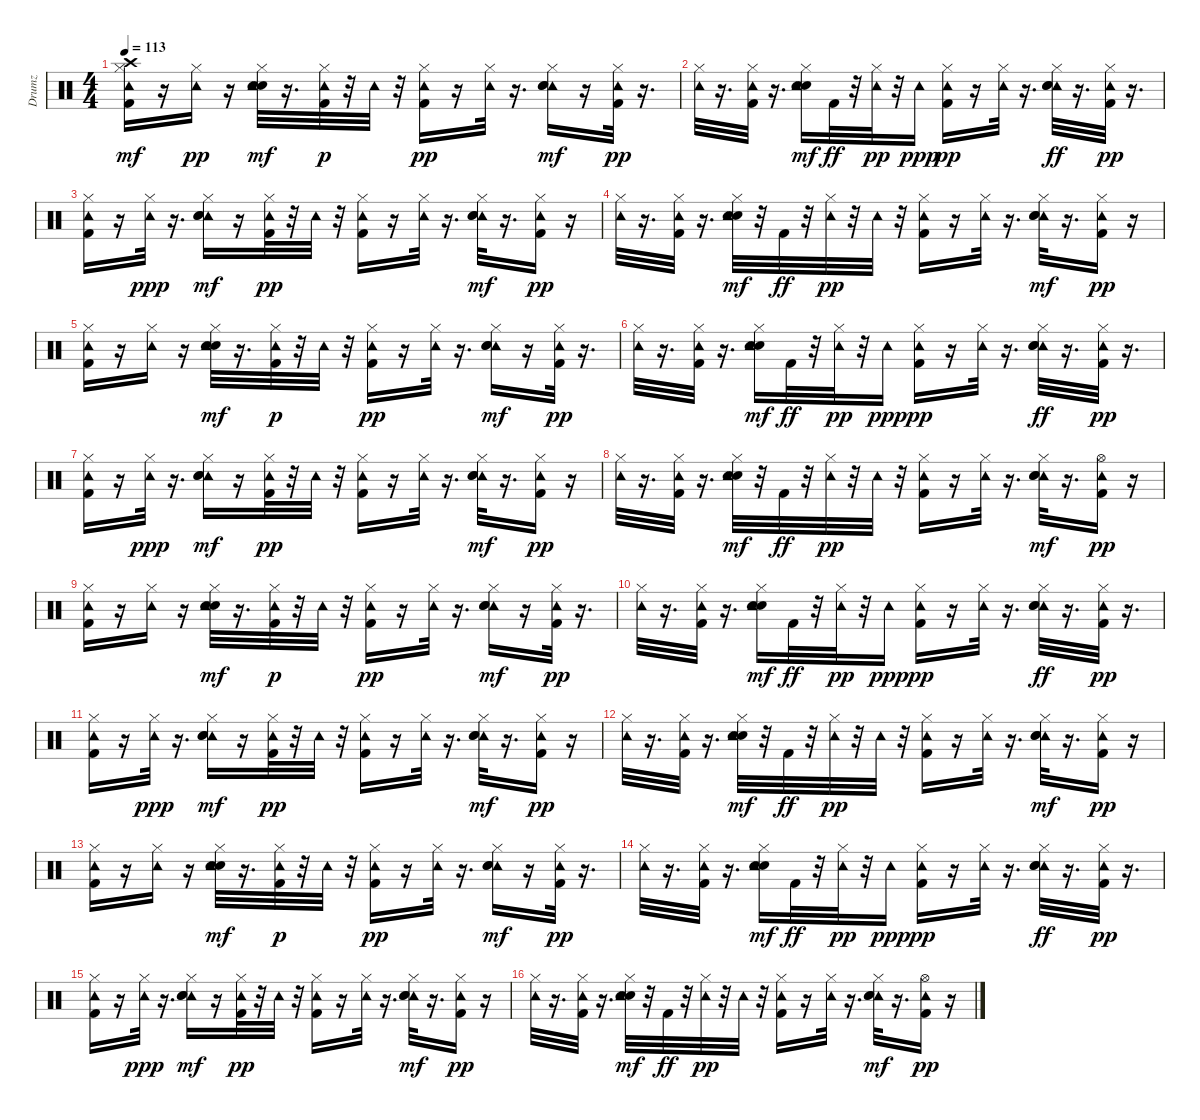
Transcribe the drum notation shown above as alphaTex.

\track ("Drumz" "Drumz") {instrument percussion}
\staff {score}
\articulation defaults
\ts (4 4)
\tempo 113
\clef neutral
\ks c
("Hi-Hat (closed)" "Kick (hit) 2" "Tambourine (hit)" "Crash high (hit)").16{dy mf} r.16 ("Hi-Hat (closed)" "Tambourine (hit)").16{dy pp} r.16 ("Electric Snare (hit)" "Hand Clap (hit)" "Hi-Hat (closed)" "Tambourine (hit)").32{dy mf} r.16{d} ("Hi-Hat (closed)" "Kick (hit) 2" "Tambourine (hit)").32{dy p} r.32 "Tambourine (hit)".32 r.32 ("Kick (hit) 2" "Hi-Hat (closed)" "Tambourine (hit)").16{dy pp} r.16 ("Hi-Hat (closed)" "Tambourine (hit)").32 r.16{d} ("Tambourine (hit)" "Electric Snare (hit)" "Hi-Hat (closed)" "Hand Clap (hit)").16{dy mf} r.16 ("Hi-Hat (closed)" "Kick (hit) 2" "Tambourine (hit)").32{dy pp} r.16{d} |
("Hi-Hat (closed)" "Tambourine (hit)").32 r.16{d} ("Kick (hit) 2" "Hi-Hat (closed)" "Tambourine (hit)").32 r.16{d} ("Electric Snare (hit)" "Hand Clap (hit)" "Hi-Hat (closed)" "Tambourine (hit)").16{dy mf} "Kick (hit) 2".32{dy ff} r.32 ("Hi-Hat (closed)" "Tambourine (hit)").32{dy pp} r.32 "Tambourine (hit)".16{dy ppp} ("Hi-Hat (closed)" "Kick (hit) 2" "Tambourine (hit)").16{dy pp} r.16 ("Hi-Hat (closed)" "Tambourine (hit)").32 r.16{d} ("Tambourine (hit)" "Hi-Hat (closed)" "Hand Clap (hit)" "Electric Snare (hit)").32{dy ff} r.16{d} ("Hi-Hat (closed)" "Kick (hit) 2" "Tambourine (hit)").32{dy pp} r.16{d} |
("Hi-Hat (closed)" "Kick (hit) 2" "Tambourine (hit)").16 r.16 ("Hi-Hat (closed)" "Tambourine (hit)").32{dy ppp} r.16{d} ("Tambourine (hit)" "Electric Snare (hit)" "Hi-Hat (closed)" "Hand Clap (hit)").16{dy mf} r.16 ("Kick (hit) 2" "Hi-Hat (closed)" "Tambourine (hit)").32{dy pp} r.32 "Tambourine (hit)".32 r.32 ("Kick (hit) 2" "Hi-Hat (closed)" "Tambourine (hit)").16 r.16 ("Hi-Hat (closed)" "Tambourine (hit)").32 r.16{d} ("Tambourine (hit)" "Electric Snare (hit)" "Hi-Hat (closed)" "Hand Clap (hit)").32{dy mf} r.16{d} ("Hi-Hat (closed)" "Kick (hit) 2" "Tambourine (hit)").16{dy pp} r.16 |
("Hi-Hat (closed)" "Tambourine (hit)").32 r.16{d} ("Kick (hit) 2" "Hi-Hat (closed)" "Tambourine (hit)").32 r.16{d} ("Hand Clap (hit)" "Electric Snare (hit)" "Hi-Hat (closed)" "Tambourine (hit)").32{dy mf} r.32 "Kick (hit) 2".32{dy ff} r.32 ("Hi-Hat (closed)" "Tambourine (hit)").32{dy pp} r.32 "Tambourine (hit)".32 r.32 ("Kick (hit) 2" "Hi-Hat (closed)" "Tambourine (hit)").16 r.16 ("Hi-Hat (closed)" "Tambourine (hit)").32 r.16{d} ("Tambourine (hit)" "Hand Clap (hit)" "Electric Snare (hit)" "Hi-Hat (closed)").32{dy mf} r.16{d} ("Kick (hit) 2" "Hi-Hat (closed)" "Tambourine (hit)").16{dy pp} r.16 |
("Hi-Hat (closed)" "Kick (hit) 2" "Tambourine (hit)").16 r.16 ("Hi-Hat (closed)" "Tambourine (hit)").16 r.16 ("Electric Snare (hit)" "Hand Clap (hit)" "Hi-Hat (closed)" "Tambourine (hit)").32{dy mf} r.16{d} ("Hi-Hat (closed)" "Kick (hit) 2" "Tambourine (hit)").32{dy p} r.32 "Tambourine (hit)".32 r.32 ("Kick (hit) 2" "Hi-Hat (closed)" "Tambourine (hit)").16{dy pp} r.16 ("Hi-Hat (closed)" "Tambourine (hit)").32 r.16{d} ("Tambourine (hit)" "Electric Snare (hit)" "Hi-Hat (closed)" "Hand Clap (hit)").16{dy mf} r.16 ("Hi-Hat (closed)" "Kick (hit) 2" "Tambourine (hit)").32{dy pp} r.16{d} |
("Hi-Hat (closed)" "Tambourine (hit)").32 r.16{d} ("Kick (hit) 2" "Hi-Hat (closed)" "Tambourine (hit)").32 r.16{d} ("Electric Snare (hit)" "Hand Clap (hit)" "Hi-Hat (closed)" "Tambourine (hit)").16{dy mf} "Kick (hit) 2".32{dy ff} r.32 ("Hi-Hat (closed)" "Tambourine (hit)").32{dy pp} r.32 "Tambourine (hit)".16{dy ppp} ("Hi-Hat (closed)" "Kick (hit) 2" "Tambourine (hit)").16{dy pp} r.16 ("Hi-Hat (closed)" "Tambourine (hit)").32 r.16{d} ("Tambourine (hit)" "Hi-Hat (closed)" "Hand Clap (hit)" "Electric Snare (hit)").32{dy ff} r.16{d} ("Hi-Hat (closed)" "Kick (hit) 2" "Tambourine (hit)").32{dy pp} r.16{d} |
("Hi-Hat (closed)" "Kick (hit) 2" "Tambourine (hit)").16 r.16 ("Hi-Hat (closed)" "Tambourine (hit)").32{dy ppp} r.16{d} ("Tambourine (hit)" "Electric Snare (hit)" "Hi-Hat (closed)" "Hand Clap (hit)").16{dy mf} r.16 ("Kick (hit) 2" "Hi-Hat (closed)" "Tambourine (hit)").32{dy pp} r.32 "Tambourine (hit)".32 r.32 ("Kick (hit) 2" "Hi-Hat (closed)" "Tambourine (hit)").16 r.16 ("Hi-Hat (closed)" "Tambourine (hit)").32 r.16{d} ("Tambourine (hit)" "Electric Snare (hit)" "Hi-Hat (closed)" "Hand Clap (hit)").32{dy mf} r.16{d} ("Hi-Hat (closed)" "Kick (hit) 2" "Tambourine (hit)").16{dy pp} r.16 |
("Hi-Hat (closed)" "Tambourine (hit)").32 r.16{d} ("Kick (hit) 2" "Hi-Hat (closed)" "Tambourine (hit)").32 r.16{d} ("Hand Clap (hit)" "Electric Snare (hit)" "Hi-Hat (closed)" "Tambourine (hit)").32{dy mf} r.32 "Kick (hit) 2".32{dy ff} r.32 ("Hi-Hat (closed)" "Tambourine (hit)").32{dy pp} r.32 "Tambourine (hit)".32 r.32 ("Kick (hit) 2" "Hi-Hat (closed)" "Tambourine (hit)").16 r.16 ("Hi-Hat (closed)" "Tambourine (hit)").32 r.16{d} ("Tambourine (hit)" "Hand Clap (hit)" "Electric Snare (hit)" "Hi-Hat (closed)").32{dy mf} r.16{d} ("Hi-Hat (open)" "Kick (hit) 2" "Tambourine (hit)").16{dy pp} r.16 |
("Hi-Hat (closed)" "Kick (hit) 2" "Tambourine (hit)").16 r.16 ("Hi-Hat (closed)" "Tambourine (hit)").16 r.16 ("Electric Snare (hit)" "Hand Clap (hit)" "Hi-Hat (closed)" "Tambourine (hit)").32{dy mf} r.16{d} ("Hi-Hat (closed)" "Kick (hit) 2" "Tambourine (hit)").32{dy p} r.32 "Tambourine (hit)".32 r.32 ("Kick (hit) 2" "Hi-Hat (closed)" "Tambourine (hit)").16{dy pp} r.16 ("Hi-Hat (closed)" "Tambourine (hit)").32 r.16{d} ("Tambourine (hit)" "Electric Snare (hit)" "Hi-Hat (closed)" "Hand Clap (hit)").16{dy mf} r.16 ("Hi-Hat (closed)" "Kick (hit) 2" "Tambourine (hit)").32{dy pp} r.16{d} |
("Hi-Hat (closed)" "Tambourine (hit)").32 r.16{d} ("Kick (hit) 2" "Hi-Hat (closed)" "Tambourine (hit)").32 r.16{d} ("Electric Snare (hit)" "Hand Clap (hit)" "Hi-Hat (closed)" "Tambourine (hit)").16{dy mf} "Kick (hit) 2".32{dy ff} r.32 ("Hi-Hat (closed)" "Tambourine (hit)").32{dy pp} r.32 "Tambourine (hit)".16{dy ppp} ("Hi-Hat (closed)" "Kick (hit) 2" "Tambourine (hit)").16{dy pp} r.16 ("Hi-Hat (closed)" "Tambourine (hit)").32 r.16{d} ("Tambourine (hit)" "Hi-Hat (closed)" "Hand Clap (hit)" "Electric Snare (hit)").32{dy ff} r.16{d} ("Hi-Hat (closed)" "Kick (hit) 2" "Tambourine (hit)").32{dy pp} r.16{d} |
("Hi-Hat (closed)" "Kick (hit) 2" "Tambourine (hit)").16 r.16 ("Hi-Hat (closed)" "Tambourine (hit)").32{dy ppp} r.16{d} ("Tambourine (hit)" "Electric Snare (hit)" "Hi-Hat (closed)" "Hand Clap (hit)").16{dy mf} r.16 ("Kick (hit) 2" "Hi-Hat (closed)" "Tambourine (hit)").32{dy pp} r.32 "Tambourine (hit)".32 r.32 ("Kick (hit) 2" "Hi-Hat (closed)" "Tambourine (hit)").16 r.16 ("Hi-Hat (closed)" "Tambourine (hit)").32 r.16{d} ("Tambourine (hit)" "Electric Snare (hit)" "Hi-Hat (closed)" "Hand Clap (hit)").32{dy mf} r.16{d} ("Hi-Hat (closed)" "Kick (hit) 2" "Tambourine (hit)").16{dy pp} r.16 |
("Hi-Hat (closed)" "Tambourine (hit)").32 r.16{d} ("Kick (hit) 2" "Hi-Hat (closed)" "Tambourine (hit)").32 r.16{d} ("Hand Clap (hit)" "Electric Snare (hit)" "Hi-Hat (closed)" "Tambourine (hit)").32{dy mf} r.32 "Kick (hit) 2".32{dy ff} r.32 ("Hi-Hat (closed)" "Tambourine (hit)").32{dy pp} r.32 "Tambourine (hit)".32 r.32 ("Kick (hit) 2" "Hi-Hat (closed)" "Tambourine (hit)").16 r.16 ("Hi-Hat (closed)" "Tambourine (hit)").32 r.16{d} ("Tambourine (hit)" "Hand Clap (hit)" "Electric Snare (hit)" "Hi-Hat (closed)").32{dy mf} r.16{d} ("Kick (hit) 2" "Hi-Hat (closed)" "Tambourine (hit)").16{dy pp} r.16 |
("Hi-Hat (closed)" "Kick (hit) 2" "Tambourine (hit)").16 r.16 ("Hi-Hat (closed)" "Tambourine (hit)").16 r.16 ("Electric Snare (hit)" "Hand Clap (hit)" "Hi-Hat (closed)" "Tambourine (hit)").32{dy mf} r.16{d} ("Hi-Hat (closed)" "Kick (hit) 2" "Tambourine (hit)").32{dy p} r.32 "Tambourine (hit)".32 r.32 ("Kick (hit) 2" "Hi-Hat (closed)" "Tambourine (hit)").16{dy pp} r.16 ("Hi-Hat (closed)" "Tambourine (hit)").32 r.16{d} ("Tambourine (hit)" "Electric Snare (hit)" "Hi-Hat (closed)" "Hand Clap (hit)").16{dy mf} r.16 ("Hi-Hat (closed)" "Kick (hit) 2" "Tambourine (hit)").32{dy pp} r.16{d} |
("Hi-Hat (closed)" "Tambourine (hit)").32 r.16{d} ("Kick (hit) 2" "Hi-Hat (closed)" "Tambourine (hit)").32 r.16{d} ("Electric Snare (hit)" "Hand Clap (hit)" "Hi-Hat (closed)" "Tambourine (hit)").16{dy mf} "Kick (hit) 2".32{dy ff} r.32 ("Hi-Hat (closed)" "Tambourine (hit)").32{dy pp} r.32 "Tambourine (hit)".16{dy ppp} ("Hi-Hat (closed)" "Kick (hit) 2" "Tambourine (hit)").16{dy pp} r.16 ("Hi-Hat (closed)" "Tambourine (hit)").32 r.16{d} ("Tambourine (hit)" "Hi-Hat (closed)" "Hand Clap (hit)" "Electric Snare (hit)").32{dy ff} r.16{d} ("Hi-Hat (closed)" "Kick (hit) 2" "Tambourine (hit)").32{dy pp} r.16{d} |
("Hi-Hat (closed)" "Kick (hit) 2" "Tambourine (hit)").16 r.16 ("Hi-Hat (closed)" "Tambourine (hit)").32{dy ppp} r.16{d} ("Tambourine (hit)" "Electric Snare (hit)" "Hi-Hat (closed)" "Hand Clap (hit)").16{dy mf} r.16 ("Kick (hit) 2" "Hi-Hat (closed)" "Tambourine (hit)").32{dy pp} r.32 "Tambourine (hit)".32 r.32 ("Kick (hit) 2" "Hi-Hat (closed)" "Tambourine (hit)").16 r.16 ("Hi-Hat (closed)" "Tambourine (hit)").32 r.16{d} ("Tambourine (hit)" "Electric Snare (hit)" "Hi-Hat (closed)" "Hand Clap (hit)").32{dy mf} r.16{d} ("Hi-Hat (closed)" "Kick (hit) 2" "Tambourine (hit)").16{dy pp} r.16 |
("Hi-Hat (closed)" "Tambourine (hit)").32 r.16{d} ("Kick (hit) 2" "Hi-Hat (closed)" "Tambourine (hit)").32 r.16{d} ("Hand Clap (hit)" "Electric Snare (hit)" "Hi-Hat (closed)" "Tambourine (hit)").32{dy mf} r.32 "Kick (hit) 2".32{dy ff} r.32 ("Hi-Hat (closed)" "Tambourine (hit)").32{dy pp} r.32 "Tambourine (hit)".32 r.32 ("Kick (hit) 2" "Hi-Hat (closed)" "Tambourine (hit)").16 r.16 ("Hi-Hat (closed)" "Tambourine (hit)").32 r.16{d} ("Tambourine (hit)" "Hand Clap (hit)" "Electric Snare (hit)" "Hi-Hat (closed)").32{dy mf} r.16{d} ("Hi-Hat (open)" "Kick (hit) 2" "Tambourine (hit)").16{dy pp} r.16
